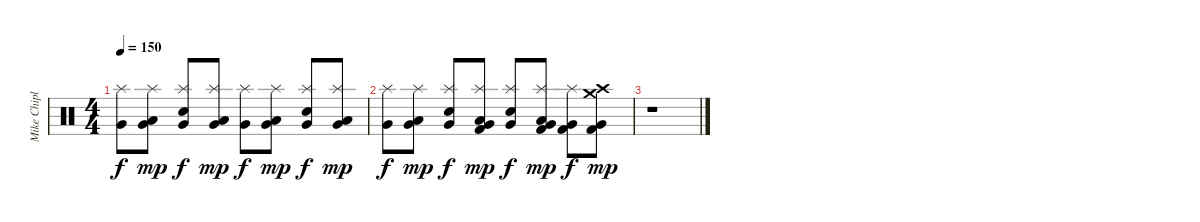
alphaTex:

\track ("Mike Chiplin" "Mike Chipl") {instrument percussion}
\staff {score}
\articulation defaults
\ts (4 4)
\tempo 150
\clef neutral
\ks c
("Very Low Tom (hit)" "Splash (hit)").8{dy f} ("Low Floor Tom (hit)" "Very Low Tom (hit)" "Splash (hit)").8{dy mp} ("Very Low Tom (hit)" "Snare (hit) 2" "Splash (hit)").8{dy f} ("Low Floor Tom (hit)" "Very Low Tom (hit)" "Splash (hit)").8{dy mp} ("Very Low Tom (hit)" "Splash (hit)").8{dy f} ("Low Floor Tom (hit)" "Very Low Tom (hit)" "Splash (hit)").8{dy mp} ("Very Low Tom (hit)" "Snare (hit) 2" "Splash (hit)").8{dy f} ("Low Floor Tom (hit)" "Very Low Tom (hit)" "Splash (hit)").8{dy mp} |
("Very Low Tom (hit)" "Splash (hit)").8{dy f} ("Low Floor Tom (hit)" "Very Low Tom (hit)" "Splash (hit)").8{dy mp} ("Very Low Tom (hit)" "Electric Snare (hit)" "Splash (hit)").8{dy f} ("Low Floor Tom (hit)" "Very Low Tom (hit)" "Kick (hit) 2" "Splash (hit)").8{dy mp} ("Very Low Tom (hit)" "Electric Snare (hit)" "Splash (hit)").8{dy f} ("Low Floor Tom (hit)" "Very Low Tom (hit)" "Kick (hit) 2" "Splash (hit)").8{dy mp} ("Very Low Tom (hit)" "Kick (hit) 2" "Splash (hit)").8{dy f} ("Crash medium (hit)" "Crash high (hit)" "Very Low Tom (hit)" "Kick (hit) 2").8{dy mp} |
r.1
